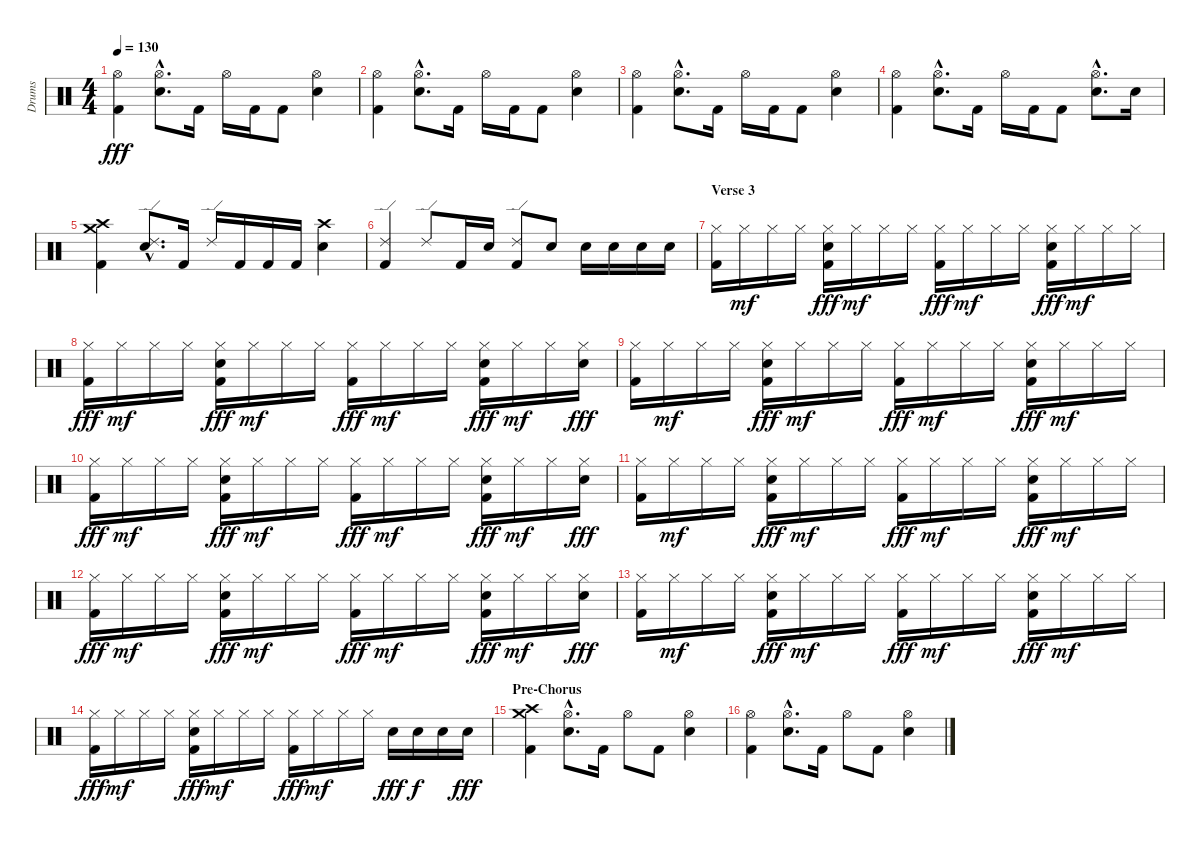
\track ("Drums" "Drums") {instrument percussion}
\staff {score}
\articulation defaults
\ts (4 4)
\tempo 130
\clef neutral
\ks c
("Hi-Hat (open)" "Kick (hit) 2").4{dy fff} ("Hi-Hat (open)"{hac} "Electric Snare (hit)"{hac}).8{d} "Kick (hit) 2".16 "Hi-Hat (open)".16 "Kick (hit) 2".16 "Kick (hit) 2".8 ("Hi-Hat (open)" "Electric Snare (hit)").4 |
("Hi-Hat (open)" "Kick (hit) 2").4 ("Hi-Hat (open)"{hac} "Electric Snare (hit)"{hac}).8{d} "Kick (hit) 2".16 "Hi-Hat (open)".16 "Kick (hit) 2".16 "Kick (hit) 2".8 ("Hi-Hat (open)" "Electric Snare (hit)").4 |
("Hi-Hat (open)" "Kick (hit) 2").4 ("Hi-Hat (open)"{hac} "Electric Snare (hit)"{hac}).8{d} "Kick (hit) 2".16 "Hi-Hat (open)".16 "Kick (hit) 2".16 "Kick (hit) 2".8 ("Hi-Hat (open)" "Electric Snare (hit)").4 |
("Hi-Hat (open)" "Kick (hit) 2").4 ("Hi-Hat (open)"{hac} "Electric Snare (hit)"{hac}).8{d} "Kick (hit) 2".16 "Hi-Hat (open)".16 "Kick (hit) 2".16 "Kick (hit) 2".8 ("Hi-Hat (open)"{hac} "Electric Snare (hit)"{hac}).8{d} "Electric Snare (hit)".16 |
("Crash high (hit)" "Crash medium (hit)" "Kick (hit) 2").4 ("Ride (edge) 2"{hac} "Electric Snare (hit)"{hac}).8{d} "Kick (hit) 2".16 "Ride (edge) 2".16 "Kick (hit) 2".16 "Kick (hit) 2".16 "Kick (hit) 2".16 ("Crash high (hit)" "Electric Snare (hit)").4 |
("Ride (edge) 2" "Kick (hit) 2").4 "Ride (edge) 2".8 "Kick (hit) 2".16 "Electric Snare (hit)".16 ("Ride (edge) 2" "Kick (hit) 2").8 "Electric Snare (hit)".8 "Electric Snare (hit)".16 "Electric Snare (hit)".16 "Electric Snare (hit)".16 "Electric Snare (hit)".16 |
\section ("" "Verse 3")
("Hi-Hat (closed)" "Kick (hit) 2").16 "Hi-Hat (closed)".16{dy mf} "Hi-Hat (closed)".16 "Hi-Hat (closed)".16 ("Hi-Hat (closed)" "Electric Snare (hit)" "Kick (hit) 2").16{dy fff} "Hi-Hat (closed)".16{dy mf} "Hi-Hat (closed)".16 "Hi-Hat (closed)".16 ("Hi-Hat (closed)" "Kick (hit) 2").16{dy fff} "Hi-Hat (closed)".16{dy mf} "Hi-Hat (closed)".16 "Hi-Hat (closed)".16 ("Hi-Hat (closed)" "Electric Snare (hit)" "Kick (hit) 2").16{dy fff} "Hi-Hat (closed)".16{dy mf} "Hi-Hat (closed)".16 "Hi-Hat (closed)".16 |
("Hi-Hat (closed)" "Kick (hit) 2").16{dy fff} "Hi-Hat (closed)".16{dy mf} "Hi-Hat (closed)".16 "Hi-Hat (closed)".16 ("Hi-Hat (closed)" "Electric Snare (hit)" "Kick (hit) 2").16{dy fff} "Hi-Hat (closed)".16{dy mf} "Hi-Hat (closed)".16 "Hi-Hat (closed)".16 ("Hi-Hat (closed)" "Kick (hit) 2").16{dy fff} "Hi-Hat (closed)".16{dy mf} "Hi-Hat (closed)".16 "Hi-Hat (closed)".16 ("Hi-Hat (closed)" "Electric Snare (hit)" "Kick (hit) 2").16{dy fff} "Hi-Hat (closed)".16{dy mf} "Hi-Hat (closed)".16 ("Hi-Hat (closed)" "Electric Snare (hit)").16{dy fff} |
("Hi-Hat (closed)" "Kick (hit) 2").16 "Hi-Hat (closed)".16{dy mf} "Hi-Hat (closed)".16 "Hi-Hat (closed)".16 ("Hi-Hat (closed)" "Electric Snare (hit)" "Kick (hit) 2").16{dy fff} "Hi-Hat (closed)".16{dy mf} "Hi-Hat (closed)".16 "Hi-Hat (closed)".16 ("Hi-Hat (closed)" "Kick (hit) 2").16{dy fff} "Hi-Hat (closed)".16{dy mf} "Hi-Hat (closed)".16 "Hi-Hat (closed)".16 ("Hi-Hat (closed)" "Electric Snare (hit)" "Kick (hit) 2").16{dy fff} "Hi-Hat (closed)".16{dy mf} "Hi-Hat (closed)".16 "Hi-Hat (closed)".16 |
("Hi-Hat (closed)" "Kick (hit) 2").16{dy fff} "Hi-Hat (closed)".16{dy mf} "Hi-Hat (closed)".16 "Hi-Hat (closed)".16 ("Hi-Hat (closed)" "Electric Snare (hit)" "Kick (hit) 2").16{dy fff} "Hi-Hat (closed)".16{dy mf} "Hi-Hat (closed)".16 "Hi-Hat (closed)".16 ("Hi-Hat (closed)" "Kick (hit) 2").16{dy fff} "Hi-Hat (closed)".16{dy mf} "Hi-Hat (closed)".16 "Hi-Hat (closed)".16 ("Hi-Hat (closed)" "Electric Snare (hit)" "Kick (hit) 2").16{dy fff} "Hi-Hat (closed)".16{dy mf} "Hi-Hat (closed)".16 ("Hi-Hat (closed)" "Electric Snare (hit)").16{dy fff} |
("Hi-Hat (closed)" "Kick (hit) 2").16 "Hi-Hat (closed)".16{dy mf} "Hi-Hat (closed)".16 "Hi-Hat (closed)".16 ("Hi-Hat (closed)" "Electric Snare (hit)" "Kick (hit) 2").16{dy fff} "Hi-Hat (closed)".16{dy mf} "Hi-Hat (closed)".16 "Hi-Hat (closed)".16 ("Hi-Hat (closed)" "Kick (hit) 2").16{dy fff} "Hi-Hat (closed)".16{dy mf} "Hi-Hat (closed)".16 "Hi-Hat (closed)".16 ("Hi-Hat (closed)" "Electric Snare (hit)" "Kick (hit) 2").16{dy fff} "Hi-Hat (closed)".16{dy mf} "Hi-Hat (closed)".16 "Hi-Hat (closed)".16 |
("Hi-Hat (closed)" "Kick (hit) 2").16{dy fff} "Hi-Hat (closed)".16{dy mf} "Hi-Hat (closed)".16 "Hi-Hat (closed)".16 ("Hi-Hat (closed)" "Electric Snare (hit)" "Kick (hit) 2").16{dy fff} "Hi-Hat (closed)".16{dy mf} "Hi-Hat (closed)".16 "Hi-Hat (closed)".16 ("Hi-Hat (closed)" "Kick (hit) 2").16{dy fff} "Hi-Hat (closed)".16{dy mf} "Hi-Hat (closed)".16 "Hi-Hat (closed)".16 ("Hi-Hat (closed)" "Electric Snare (hit)" "Kick (hit) 2").16{dy fff} "Hi-Hat (closed)".16{dy mf} "Hi-Hat (closed)".16 ("Hi-Hat (closed)" "Electric Snare (hit)").16{dy fff} |
("Hi-Hat (closed)" "Kick (hit) 2").16 "Hi-Hat (closed)".16{dy mf} "Hi-Hat (closed)".16 "Hi-Hat (closed)".16 ("Hi-Hat (closed)" "Electric Snare (hit)" "Kick (hit) 2").16{dy fff} "Hi-Hat (closed)".16{dy mf} "Hi-Hat (closed)".16 "Hi-Hat (closed)".16 ("Hi-Hat (closed)" "Kick (hit) 2").16{dy fff} "Hi-Hat (closed)".16{dy mf} "Hi-Hat (closed)".16 "Hi-Hat (closed)".16 ("Hi-Hat (closed)" "Electric Snare (hit)" "Kick (hit) 2").16{dy fff} "Hi-Hat (closed)".16{dy mf} "Hi-Hat (closed)".16 "Hi-Hat (closed)".16 |
("Hi-Hat (closed)" "Kick (hit) 2").16{dy fff} "Hi-Hat (closed)".16{dy mf} "Hi-Hat (closed)".16 "Hi-Hat (closed)".16 ("Hi-Hat (closed)" "Electric Snare (hit)" "Kick (hit) 2").16{dy fff} "Hi-Hat (closed)".16{dy mf} "Hi-Hat (closed)".16 "Hi-Hat (closed)".16 ("Hi-Hat (closed)" "Kick (hit) 2").16{dy fff} "Hi-Hat (closed)".16{dy mf} "Hi-Hat (closed)".16 "Hi-Hat (closed)".16 "Electric Snare (hit)".16{dy fff} "Electric Snare (hit)".16{dy f} "Electric Snare (hit)".16 "Electric Snare (hit)".16{dy fff} |
\section ("" "Pre-Chorus")
("Crash high (hit)" "Crash medium (hit)" "Kick (hit) 2").4 ("Hi-Hat (open)"{hac} "Electric Snare (hit)"{hac}).8{d} "Kick (hit) 2".16 "Hi-Hat (open)".8 "Kick (hit) 2".8 ("Hi-Hat (open)" "Electric Snare (hit)").4 |
("Hi-Hat (open)" "Kick (hit) 2").4 ("Hi-Hat (open)"{hac} "Electric Snare (hit)"{hac}).8{d} "Kick (hit) 2".16 "Hi-Hat (open)".8 "Kick (hit) 2".8 ("Hi-Hat (open)" "Electric Snare (hit)").4
